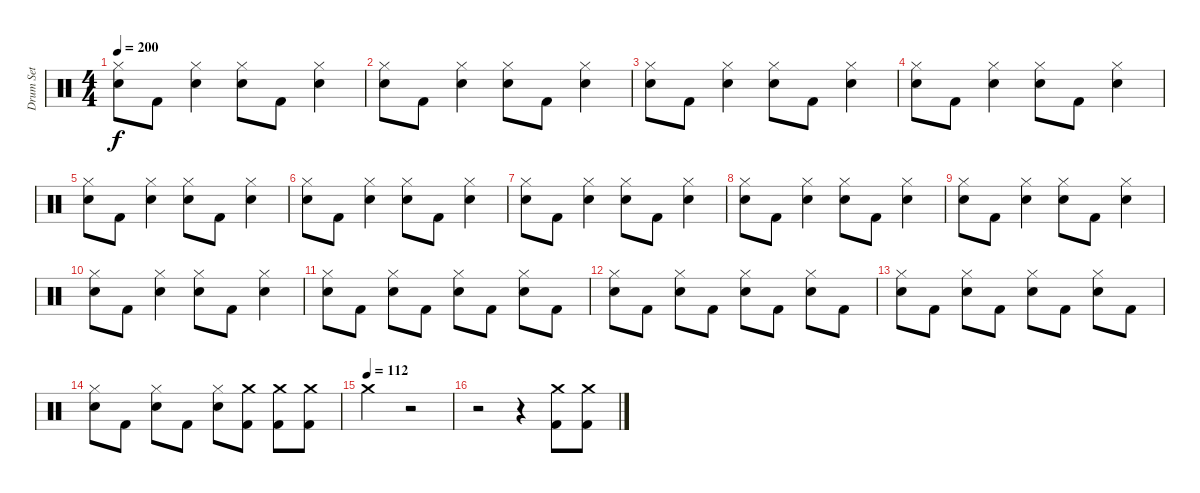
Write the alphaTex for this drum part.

\track ("Drum Set" "Drum Set") {instrument percussion}
\staff {score}
\articulation defaults
\ts (4 4)
\tempo 200
\clef neutral
\ks c
("Hi-Hat (closed)" "Snare (hit) 2").8{dy f} "Kick (hit) 2".8 ("Hi-Hat (closed)" "Snare (hit) 2").4 ("Hi-Hat (closed)" "Snare (hit) 2").8 "Kick (hit) 2".8 ("Hi-Hat (closed)" "Snare (hit) 2").4 |
("Hi-Hat (closed)" "Snare (hit) 2").8 "Kick (hit) 2".8 ("Hi-Hat (closed)" "Snare (hit) 2").4 ("Hi-Hat (closed)" "Snare (hit) 2").8 "Kick (hit) 2".8 ("Hi-Hat (closed)" "Snare (hit) 2").4 |
("Hi-Hat (closed)" "Snare (hit) 2").8 "Kick (hit) 2".8 ("Hi-Hat (closed)" "Snare (hit) 2").4 ("Hi-Hat (closed)" "Snare (hit) 2").8 "Kick (hit) 2".8 ("Hi-Hat (closed)" "Snare (hit) 2").4 |
("Hi-Hat (closed)" "Snare (hit) 2").8 "Kick (hit) 2".8 ("Hi-Hat (closed)" "Snare (hit) 2").4 ("Hi-Hat (closed)" "Snare (hit) 2").8 "Kick (hit) 2".8 ("Hi-Hat (closed)" "Snare (hit) 2").4 |
("Hi-Hat (closed)" "Snare (hit) 2").8 "Kick (hit) 2".8 ("Hi-Hat (closed)" "Snare (hit) 2").4 ("Hi-Hat (closed)" "Snare (hit) 2").8 "Kick (hit) 2".8 ("Hi-Hat (closed)" "Snare (hit) 2").4 |
("Hi-Hat (closed)" "Snare (hit) 2").8 "Kick (hit) 2".8 ("Hi-Hat (closed)" "Snare (hit) 2").4 ("Hi-Hat (closed)" "Snare (hit) 2").8 "Kick (hit) 2".8 ("Hi-Hat (closed)" "Snare (hit) 2").4 |
("Hi-Hat (closed)" "Snare (hit) 2").8 "Kick (hit) 2".8 ("Hi-Hat (closed)" "Snare (hit) 2").4 ("Hi-Hat (closed)" "Snare (hit) 2").8 "Kick (hit) 2".8 ("Hi-Hat (closed)" "Snare (hit) 2").4 |
("Hi-Hat (closed)" "Snare (hit) 2").8 "Kick (hit) 2".8 ("Hi-Hat (closed)" "Snare (hit) 2").4 ("Hi-Hat (closed)" "Snare (hit) 2").8 "Kick (hit) 2".8 ("Hi-Hat (closed)" "Snare (hit) 2").4 |
("Hi-Hat (closed)" "Snare (hit) 2").8 "Kick (hit) 2".8 ("Hi-Hat (closed)" "Snare (hit) 2").4 ("Hi-Hat (closed)" "Snare (hit) 2").8 "Kick (hit) 2".8 ("Hi-Hat (closed)" "Snare (hit) 2").4 |
("Hi-Hat (closed)" "Snare (hit) 2").8 "Kick (hit) 2".8 ("Hi-Hat (closed)" "Snare (hit) 2").4 ("Hi-Hat (closed)" "Snare (hit) 2").8 "Kick (hit) 2".8 ("Hi-Hat (closed)" "Snare (hit) 2").4 |
("Hi-Hat (closed)" "Snare (hit) 2").8 "Kick (hit) 2".8 ("Hi-Hat (closed)" "Snare (hit) 2").8 "Kick (hit) 2".8 ("Hi-Hat (closed)" "Snare (hit) 2").8 "Kick (hit) 2".8 ("Hi-Hat (closed)" "Snare (hit) 2").8 "Kick (hit) 2".8 |
("Hi-Hat (closed)" "Snare (hit) 2").8 "Kick (hit) 2".8 ("Hi-Hat (closed)" "Snare (hit) 2").8 "Kick (hit) 2".8 ("Hi-Hat (closed)" "Snare (hit) 2").8 "Kick (hit) 2".8 ("Hi-Hat (closed)" "Snare (hit) 2").8 "Kick (hit) 2".8 |
("Hi-Hat (closed)" "Snare (hit) 2").8 "Kick (hit) 2".8 ("Hi-Hat (closed)" "Snare (hit) 2").8 "Kick (hit) 2".8 ("Hi-Hat (closed)" "Snare (hit) 2").8 "Kick (hit) 2".8 ("Hi-Hat (closed)" "Snare (hit) 2").8 "Kick (hit) 2".8 |
("Hi-Hat (closed)" "Snare (hit) 2").8 "Kick (hit) 2".8 ("Hi-Hat (closed)" "Snare (hit) 2").8 "Kick (hit) 2".8 ("Hi-Hat (closed)" "Snare (hit) 2").8 ("Crash medium (hit)" "Kick (hit) 2").8 ("Crash medium (hit)" "Kick (hit) 2").8 ("Crash medium (hit)" "Kick (hit) 2").8 |
\tempo (112)
"Crash medium (hit)".2 r.2 |
r.2 r.4 ("Crash medium (hit)" "Kick (hit) 2").8 ("Crash medium (hit)" "Kick (hit) 2").8
